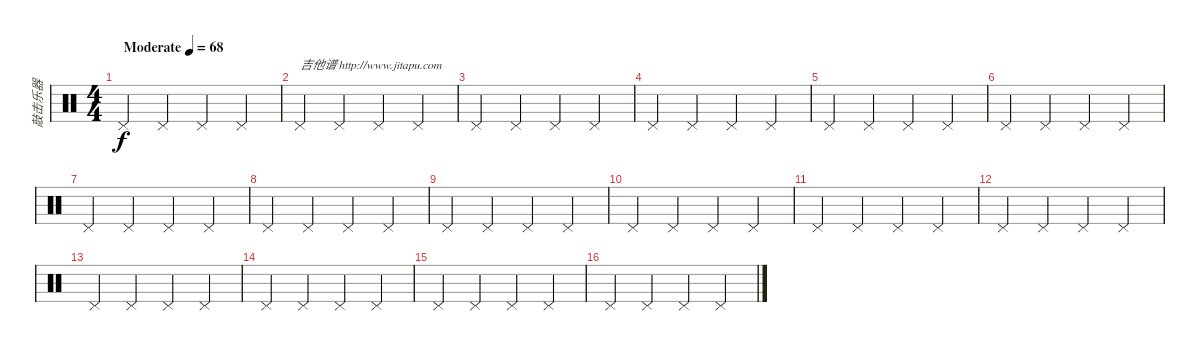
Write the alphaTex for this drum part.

\track ("敲击乐器" "敲击乐器") {instrument percussion}
\staff {score}
\articulation defaults
\ts (4 4)
\tempo (68 "Moderate")
\clef neutral
\ks c "Pedal Hi-Hat (hit)".4{dy f} "Pedal Hi-Hat (hit)".4 "Pedal Hi-Hat (hit)".4 "Pedal Hi-Hat (hit)".4
|
"Pedal Hi-Hat (hit)".4{txt "吉他谱 http://www.jitapu.com"} "Pedal Hi-Hat (hit)".4 "Pedal Hi-Hat (hit)".4 "Pedal Hi-Hat (hit)".4 |
"Pedal Hi-Hat (hit)".4 "Pedal Hi-Hat (hit)".4 "Pedal Hi-Hat (hit)".4 "Pedal Hi-Hat (hit)".4 |
"Pedal Hi-Hat (hit)".4 "Pedal Hi-Hat (hit)".4 "Pedal Hi-Hat (hit)".4 "Pedal Hi-Hat (hit)".4 |
"Pedal Hi-Hat (hit)".4 "Pedal Hi-Hat (hit)".4 "Pedal Hi-Hat (hit)".4 "Pedal Hi-Hat (hit)".4 |
"Pedal Hi-Hat (hit)".4 "Pedal Hi-Hat (hit)".4 "Pedal Hi-Hat (hit)".4 "Pedal Hi-Hat (hit)".4 |
"Pedal Hi-Hat (hit)".4 "Pedal Hi-Hat (hit)".4 "Pedal Hi-Hat (hit)".4 "Pedal Hi-Hat (hit)".4 |
"Pedal Hi-Hat (hit)".4 "Pedal Hi-Hat (hit)".4 "Pedal Hi-Hat (hit)".4 "Pedal Hi-Hat (hit)".4 |
"Pedal Hi-Hat (hit)".4 "Pedal Hi-Hat (hit)".4 "Pedal Hi-Hat (hit)".4 "Pedal Hi-Hat (hit)".4 |
"Pedal Hi-Hat (hit)".4 "Pedal Hi-Hat (hit)".4 "Pedal Hi-Hat (hit)".4 "Pedal Hi-Hat (hit)".4 |
"Pedal Hi-Hat (hit)".4 "Pedal Hi-Hat (hit)".4 "Pedal Hi-Hat (hit)".4 "Pedal Hi-Hat (hit)".4 |
"Pedal Hi-Hat (hit)".4 "Pedal Hi-Hat (hit)".4 "Pedal Hi-Hat (hit)".4 "Pedal Hi-Hat (hit)".4 |
"Pedal Hi-Hat (hit)".4 "Pedal Hi-Hat (hit)".4 "Pedal Hi-Hat (hit)".4 "Pedal Hi-Hat (hit)".4 |
"Pedal Hi-Hat (hit)".4 "Pedal Hi-Hat (hit)".4 "Pedal Hi-Hat (hit)".4 "Pedal Hi-Hat (hit)".4 |
"Pedal Hi-Hat (hit)".4 "Pedal Hi-Hat (hit)".4 "Pedal Hi-Hat (hit)".4 "Pedal Hi-Hat (hit)".4 |
"Pedal Hi-Hat (hit)".4 "Pedal Hi-Hat (hit)".4 "Pedal Hi-Hat (hit)".4 "Pedal Hi-Hat (hit)".4
